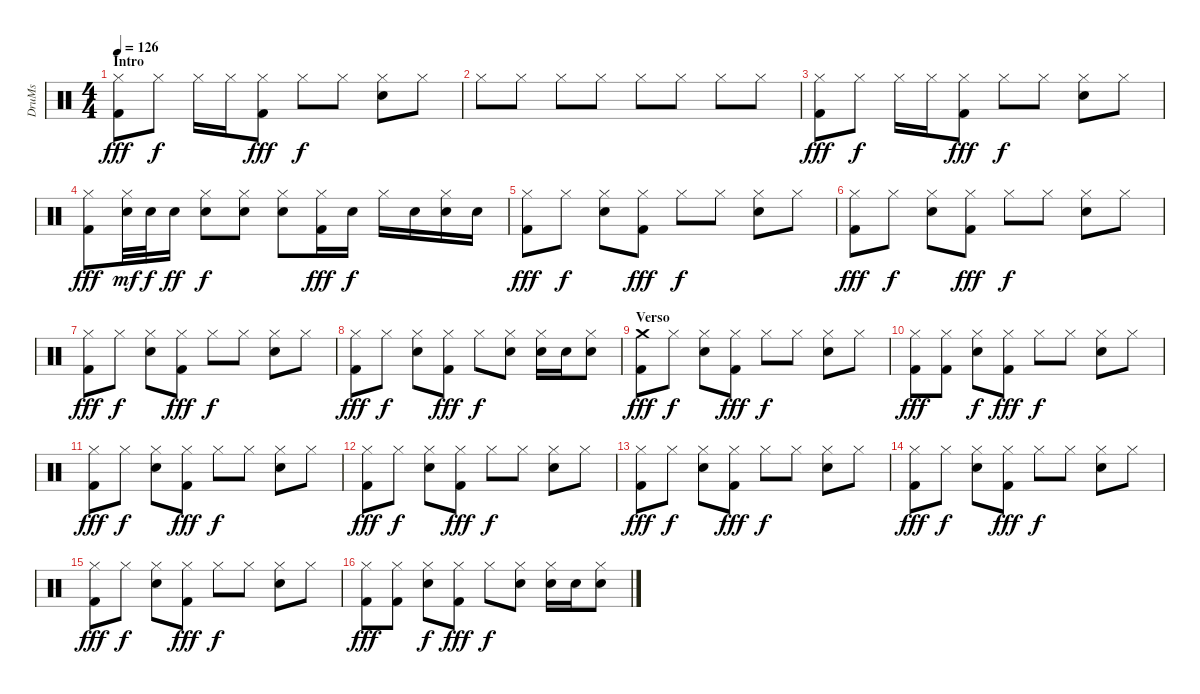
\track ("DruMs" "DruMs") {instrument percussion}
\staff {score}
\articulation defaults
\ts (4 4)
\section ("" "Intro")
\tempo 126
\clef neutral
\ks c
("Hi-Hat (closed)" "Kick (hit) 2").8{dy fff} "Hi-Hat (closed)".8{dy f} "Hi-Hat (closed)".16 "Hi-Hat (closed)".16 ("Hi-Hat (closed)" "Kick (hit) 2").8{dy fff} "Hi-Hat (closed)".8{dy f} "Hi-Hat (closed)".8 ("Hi-Hat (closed)" "Snare (hit) 2").8 "Hi-Hat (closed)".8 |
"Hi-Hat (closed)".8 "Hi-Hat (closed)".8 "Hi-Hat (closed)".8 "Hi-Hat (closed)".8 "Hi-Hat (closed)".8 "Hi-Hat (closed)".8 "Hi-Hat (closed)".8 "Hi-Hat (closed)".8 |
("Hi-Hat (closed)" "Kick (hit) 2").8{dy fff} "Hi-Hat (closed)".8{dy f} "Hi-Hat (closed)".16 "Hi-Hat (closed)".16 ("Hi-Hat (closed)" "Kick (hit) 2").8{dy fff} "Hi-Hat (closed)".8{dy f} "Hi-Hat (closed)".8 ("Hi-Hat (closed)" "Snare (hit) 2").8 "Hi-Hat (closed)".8 |
("Hi-Hat (closed)" "Kick (hit) 2").8{dy fff} ("Hi-Hat (closed)" "Snare (hit) 2").32{dy mf} "Snare (hit) 2".32{dy f} "Snare (hit) 2".16{dy ff} ("Hi-Hat (closed)" "Snare (hit) 2").8{dy f} ("Hi-Hat (closed)" "Snare (hit) 2").8 ("Hi-Hat (closed)" "Snare (hit) 2").8 ("Hi-Hat (closed)" "Kick (hit) 2").16{dy fff} "Snare (hit) 2".16{dy f} "Hi-Hat (closed)".16 "Snare (hit) 2".16 ("Hi-Hat (closed)" "Snare (hit) 2").16 "Snare (hit) 2".16 |
("Hi-Hat (closed)" "Kick (hit) 2").8{dy fff} "Hi-Hat (closed)".8{dy f} ("Hi-Hat (closed)" "Snare (hit) 2").8 ("Hi-Hat (closed)" "Kick (hit) 2").8{dy fff} "Hi-Hat (closed)".8{dy f} "Hi-Hat (closed)".8 ("Hi-Hat (closed)" "Snare (hit) 2").8 "Hi-Hat (closed)".8 |
("Hi-Hat (closed)" "Kick (hit) 2").8{dy fff} "Hi-Hat (closed)".8{dy f} ("Hi-Hat (closed)" "Snare (hit) 2").8 ("Hi-Hat (closed)" "Kick (hit) 2").8{dy fff} "Hi-Hat (closed)".8{dy f} "Hi-Hat (closed)".8 ("Hi-Hat (closed)" "Snare (hit) 2").8 "Hi-Hat (closed)".8 |
("Hi-Hat (closed)" "Kick (hit) 2").8{dy fff} "Hi-Hat (closed)".8{dy f} ("Hi-Hat (closed)" "Snare (hit) 2").8 ("Hi-Hat (closed)" "Kick (hit) 2").8{dy fff} "Hi-Hat (closed)".8{dy f} "Hi-Hat (closed)".8 ("Hi-Hat (closed)" "Snare (hit) 2").8 "Hi-Hat (closed)".8 |
("Hi-Hat (closed)" "Kick (hit) 2").8{dy fff} "Hi-Hat (closed)".8{dy f} ("Hi-Hat (closed)" "Snare (hit) 2").8 ("Hi-Hat (closed)" "Kick (hit) 2").8{dy fff} "Hi-Hat (closed)".8{dy f} ("Hi-Hat (closed)" "Snare (hit) 2").8 ("Hi-Hat (closed)" "Snare (hit) 2").16 "Snare (hit) 2".16 ("Hi-Hat (closed)" "Snare (hit) 2").8 |
\section ("" "Verso")
("Crash medium (hit)" "Kick (hit) 2").8{dy fff} "Hi-Hat (closed)".8{dy f} ("Hi-Hat (closed)" "Snare (hit) 2").8 ("Hi-Hat (closed)" "Kick (hit) 2").8{dy fff} "Hi-Hat (closed)".8{dy f} "Hi-Hat (closed)".8 ("Hi-Hat (closed)" "Snare (hit) 2").8 "Hi-Hat (closed)".8 |
("Hi-Hat (closed)" "Kick (hit) 2").8{dy fff} ("Hi-Hat (closed)" "Kick (hit) 2").8 ("Hi-Hat (closed)" "Snare (hit) 2").8{dy f} ("Hi-Hat (closed)" "Kick (hit) 2").8{dy fff} "Hi-Hat (closed)".8{dy f} "Hi-Hat (closed)".8 ("Hi-Hat (closed)" "Snare (hit) 2").8 "Hi-Hat (closed)".8 |
("Hi-Hat (closed)" "Kick (hit) 2").8{dy fff} "Hi-Hat (closed)".8{dy f} ("Hi-Hat (closed)" "Snare (hit) 2").8 ("Hi-Hat (closed)" "Kick (hit) 2").8{dy fff} "Hi-Hat (closed)".8{dy f} "Hi-Hat (closed)".8 ("Hi-Hat (closed)" "Snare (hit) 2").8 "Hi-Hat (closed)".8 |
("Hi-Hat (closed)" "Kick (hit) 2").8{dy fff} "Hi-Hat (closed)".8{dy f} ("Hi-Hat (closed)" "Snare (hit) 2").8 ("Hi-Hat (closed)" "Kick (hit) 2").8{dy fff} "Hi-Hat (closed)".8{dy f} "Hi-Hat (closed)".8 ("Hi-Hat (closed)" "Snare (hit) 2").8 "Hi-Hat (closed)".8 |
("Hi-Hat (closed)" "Kick (hit) 2").8{dy fff} "Hi-Hat (closed)".8{dy f} ("Hi-Hat (closed)" "Snare (hit) 2").8 ("Hi-Hat (closed)" "Kick (hit) 2").8{dy fff} "Hi-Hat (closed)".8{dy f} "Hi-Hat (closed)".8 ("Hi-Hat (closed)" "Snare (hit) 2").8 "Hi-Hat (closed)".8 |
("Hi-Hat (closed)" "Kick (hit) 2").8{dy fff} "Hi-Hat (closed)".8{dy f} ("Hi-Hat (closed)" "Snare (hit) 2").8 ("Hi-Hat (closed)" "Kick (hit) 2").8{dy fff} "Hi-Hat (closed)".8{dy f} "Hi-Hat (closed)".8 ("Hi-Hat (closed)" "Snare (hit) 2").8 "Hi-Hat (closed)".8 |
("Hi-Hat (closed)" "Kick (hit) 2").8{dy fff} "Hi-Hat (closed)".8{dy f} ("Hi-Hat (closed)" "Snare (hit) 2").8 ("Hi-Hat (closed)" "Kick (hit) 2").8{dy fff} "Hi-Hat (closed)".8{dy f} "Hi-Hat (closed)".8 ("Hi-Hat (closed)" "Snare (hit) 2").8 "Hi-Hat (closed)".8 |
("Hi-Hat (closed)" "Kick (hit) 2").8{dy fff} ("Hi-Hat (closed)" "Kick (hit) 2").8 ("Hi-Hat (closed)" "Snare (hit) 2").8{dy f} ("Hi-Hat (closed)" "Kick (hit) 2").8{dy fff} "Hi-Hat (closed)".8{dy f} ("Hi-Hat (closed)" "Snare (hit) 2").8 ("Hi-Hat (closed)" "Snare (hit) 2").16 "Snare (hit) 2".16 ("Hi-Hat (closed)" "Snare (hit) 2").8
